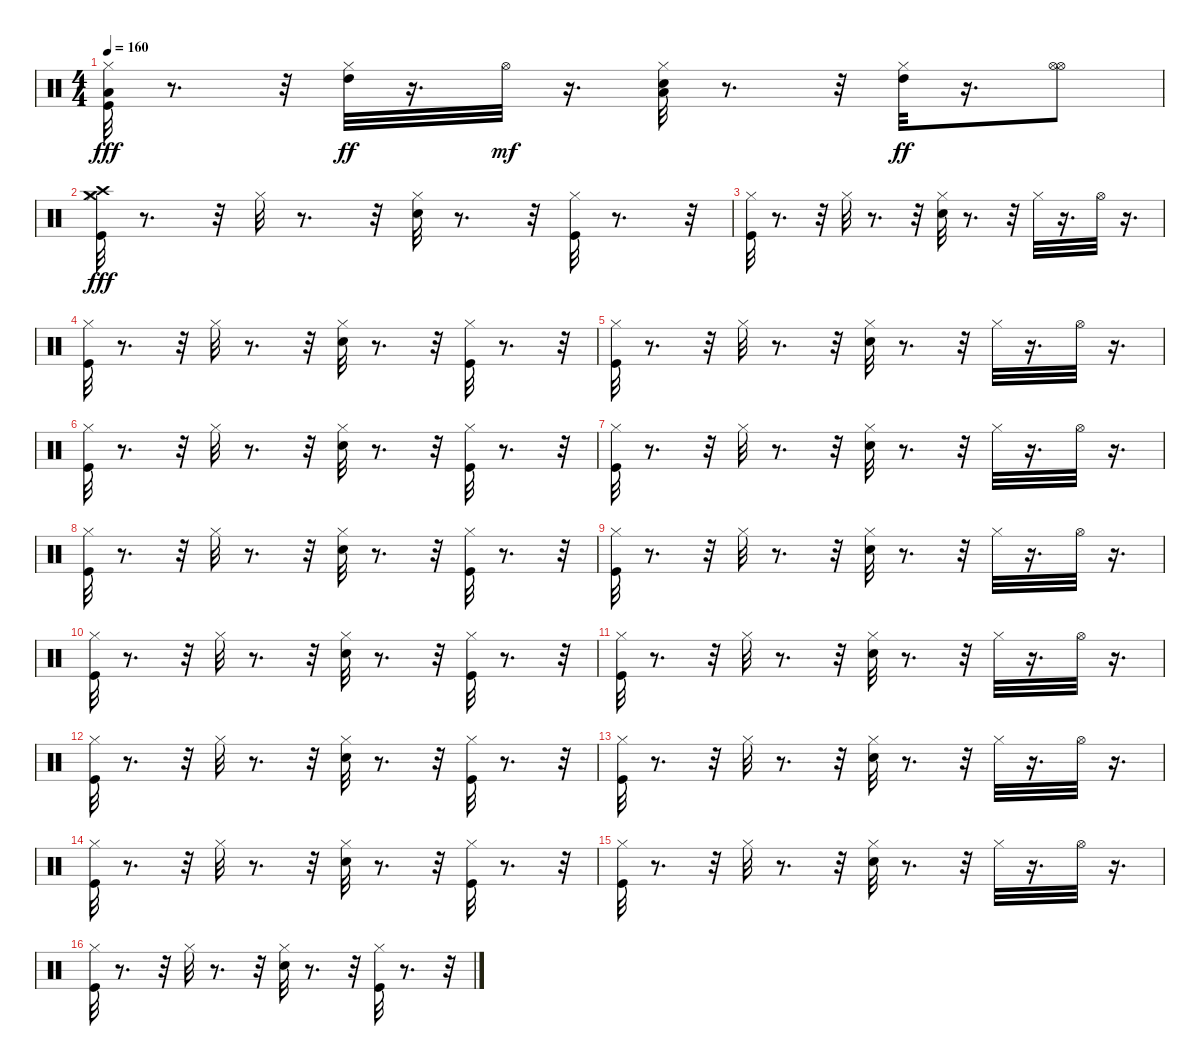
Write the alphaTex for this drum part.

\track "" {instrument percussion}
\staff {score}
\articulation defaults
\ts (4 4)
\tempo 160
\clef neutral
\ks c
("Hi-Hat (closed)" "Kick (hit)" "Low Tom (hit)").32{dy fff} r.8{d} r.32 ("Hi-Hat (closed)" "High Tom (hit)").32{dy ff} r.16{d} "Hi-Hat (open)".32{dy mf} r.16{d} ("Hi-Hat (closed)" "Electric Snare (hit)" "Low Tom (hit)").32 r.8{d} r.32 ("Hi-Hat (closed)" "High Tom (hit)").32{dy ff} r.16{d} ("Hi-Hat (open)" "Hi-Hat (open)").8 |
("Kick (hit)" "Hi-Hat (closed)" "Crash high (hit)" "Crash medium (hit)").32{dy fff} r.8{d} r.32 "Hi-Hat (closed)".32 r.8{d} r.32 ("Electric Snare (hit)" "Hi-Hat (closed)").32 r.8{d} r.32 ("Hi-Hat (closed)" "Kick (hit)").32 r.8{d} r.32 |
("Hi-Hat (closed)" "Kick (hit)").32 r.8{d} r.32 "Hi-Hat (closed)".32 r.8{d} r.32 ("Hi-Hat (closed)" "Electric Snare (hit)").32 r.8{d} r.32 "Hi-Hat (closed)".32 r.16{d} "Hi-Hat (open)".32 r.16{d} |
("Hi-Hat (closed)" "Kick (hit)").32 r.8{d} r.32 "Hi-Hat (closed)".32 r.8{d} r.32 ("Electric Snare (hit)" "Hi-Hat (closed)").32 r.8{d} r.32 ("Hi-Hat (closed)" "Kick (hit)").32 r.8{d} r.32 |
("Hi-Hat (closed)" "Kick (hit)").32 r.8{d} r.32 "Hi-Hat (closed)".32 r.8{d} r.32 ("Electric Snare (hit)" "Hi-Hat (closed)").32 r.8{d} r.32 "Hi-Hat (closed)".32 r.16{d} "Hi-Hat (open)".32 r.16{d} |
("Kick (hit)" "Hi-Hat (closed)").32 r.8{d} r.32 "Hi-Hat (closed)".32 r.8{d} r.32 ("Electric Snare (hit)" "Hi-Hat (closed)").32 r.8{d} r.32 ("Kick (hit)" "Hi-Hat (closed)").32 r.8{d} r.32 |
("Kick (hit)" "Hi-Hat (closed)").32 r.8{d} r.32 "Hi-Hat (closed)".32 r.8{d} r.32 ("Electric Snare (hit)" "Hi-Hat (closed)").32 r.8{d} r.32 "Hi-Hat (closed)".32 r.16{d} "Hi-Hat (open)".32 r.16{d} |
("Kick (hit)" "Hi-Hat (closed)").32 r.8{d} r.32 "Hi-Hat (closed)".32 r.8{d} r.32 ("Electric Snare (hit)" "Hi-Hat (closed)").32 r.8{d} r.32 ("Kick (hit)" "Hi-Hat (closed)").32 r.8{d} r.32 |
("Hi-Hat (closed)" "Kick (hit)").32 r.8{d} r.32 "Hi-Hat (closed)".32 r.8{d} r.32 ("Electric Snare (hit)" "Hi-Hat (closed)").32 r.8{d} r.32 "Hi-Hat (closed)".32 r.16{d} "Hi-Hat (open)".32 r.16{d} |
("Kick (hit)" "Hi-Hat (closed)").32 r.8{d} r.32 "Hi-Hat (closed)".32 r.8{d} r.32 ("Electric Snare (hit)" "Hi-Hat (closed)").32 r.8{d} r.32 ("Kick (hit)" "Hi-Hat (closed)").32 r.8{d} r.32 |
("Kick (hit)" "Hi-Hat (closed)").32 r.8{d} r.32 "Hi-Hat (closed)".32 r.8{d} r.32 ("Electric Snare (hit)" "Hi-Hat (closed)").32 r.8{d} r.32 "Hi-Hat (closed)".32 r.16{d} "Hi-Hat (open)".32 r.16{d} |
("Kick (hit)" "Hi-Hat (closed)").32 r.8{d} r.32 "Hi-Hat (closed)".32 r.8{d} r.32 ("Electric Snare (hit)" "Hi-Hat (closed)").32 r.8{d} r.32 ("Kick (hit)" "Hi-Hat (closed)").32 r.8{d} r.32 |
("Kick (hit)" "Hi-Hat (closed)").32 r.8{d} r.32 "Hi-Hat (closed)".32 r.8{d} r.32 ("Hi-Hat (closed)" "Electric Snare (hit)").32 r.8{d} r.32 "Hi-Hat (closed)".32 r.16{d} "Hi-Hat (open)".32 r.16{d} |
("Hi-Hat (closed)" "Kick (hit)").32 r.8{d} r.32 "Hi-Hat (closed)".32 r.8{d} r.32 ("Hi-Hat (closed)" "Electric Snare (hit)").32 r.8{d} r.32 ("Hi-Hat (closed)" "Kick (hit)").32 r.8{d} r.32 |
("Hi-Hat (closed)" "Kick (hit)").32 r.8{d} r.32 "Hi-Hat (closed)".32 r.8{d} r.32 ("Hi-Hat (closed)" "Electric Snare (hit)").32 r.8{d} r.32 "Hi-Hat (closed)".32 r.16{d} "Hi-Hat (open)".32 r.16{d} |
("Hi-Hat (closed)" "Kick (hit)").32 r.8{d} r.32 "Hi-Hat (closed)".32 r.8{d} r.32 ("Hi-Hat (closed)" "Electric Snare (hit)").32 r.8{d} r.32 ("Hi-Hat (closed)" "Kick (hit)").32 r.8{d} r.32
